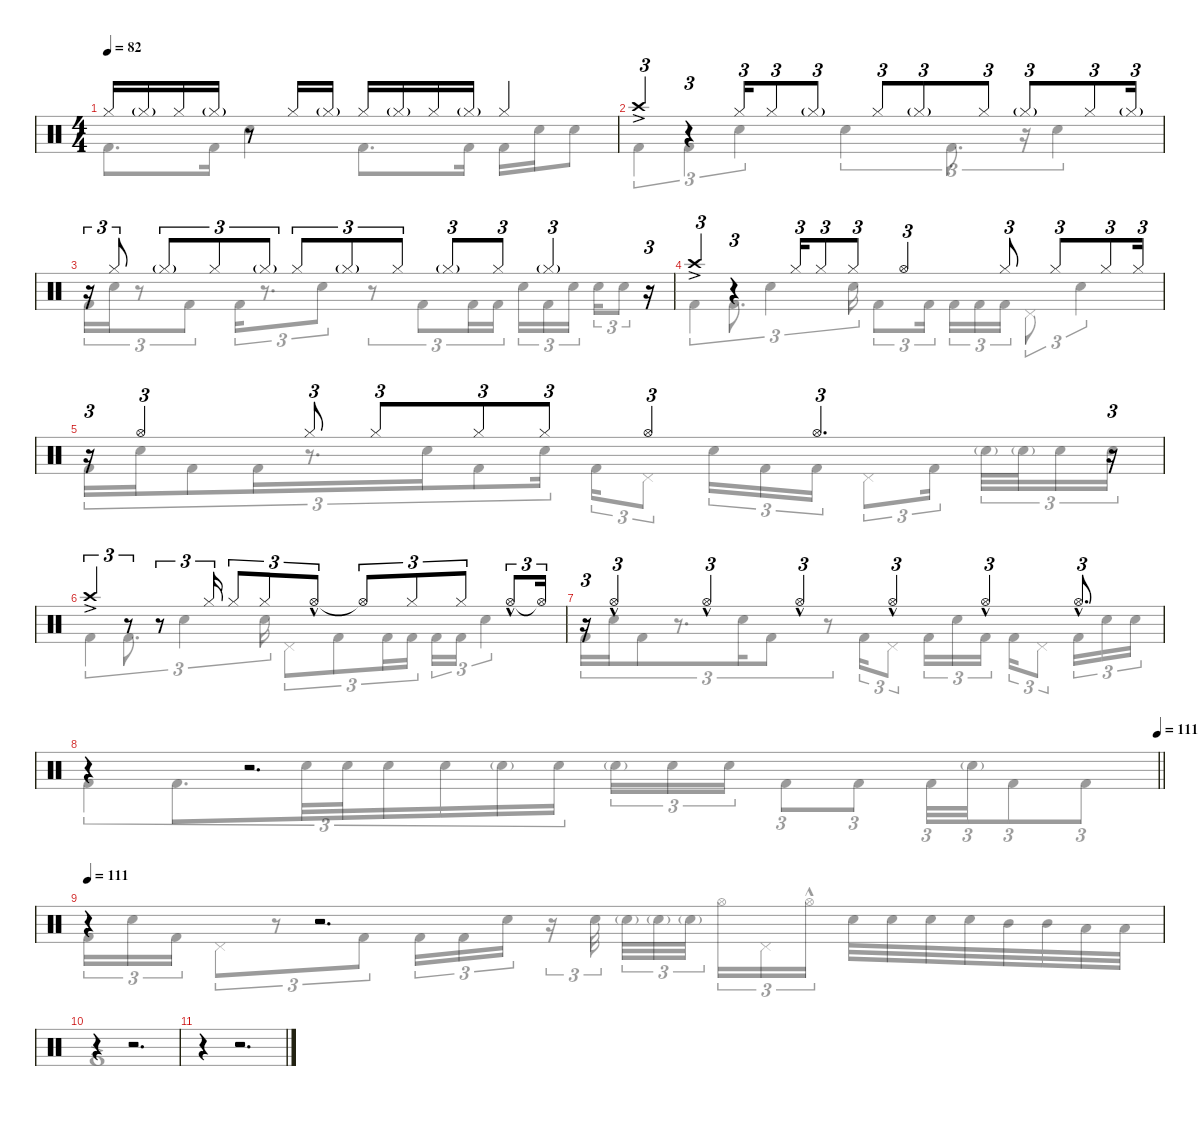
\defaultSystemsLayout 4
\hideDynamics
\bracketExtendMode nobrackets
\singleTrackTrackNamePolicy hidden
\multiTrackTrackNamePolicy hidden
\firstSystemTrackNameMode fullname
\firstSystemTrackNameOrientation horizontal
\otherSystemsTrackNameOrientation horizontal
\track ("Drums" "drm.") {instrument percussion}
\staff {score}
\articulation defaults
\voice
\ts (4 4)
\tempo 82
\clef neutral
\ks c "Hi-Hat (closed)".16{dy mf beam Up} "Hi-Hat (closed)"{g}.16{dy f beam Up} "Hi-Hat (closed)".16{dy mf beam Up} "Hi-Hat (closed)"{g}.16{dy f beam Up}
r.8{beam Up} "Hi-Hat (closed)".16{dy mf beam Up} "Hi-Hat (closed)"{g}.16{dy f beam Up} "Hi-Hat (closed)".16{dy mf beam Up} "Hi-Hat (closed)"{g}.16{dy f beam Up} "Hi-Hat (closed)".16{dy mf beam Up} "Hi-Hat (closed)"{g}.16{dy f beam Up} "Hi-Hat (closed)".4{dy mf beam Up} |
"Crash high (hit)"{ac}.4{tu (3 2) beam Up} r.4{tu (3 2) beam Up} "Hi-Hat (closed)".16{tu (3 2) dy f beam Up} "Hi-Hat (closed)".8{tu (3 2) beam Up} "Hi-Hat (closed)"{g}.8{tu (3 2) dy ff beam Up} "Hi-Hat (closed)".8{tu (3 2) dy f beam Up} "Hi-Hat (closed)"{g}.8{tu (3 2) dy ff beam Up} "Hi-Hat (closed)".8{tu (3 2) dy f beam Up} "Hi-Hat (closed)"{g}.8{tu (3 2) dy ff beam Up} "Hi-Hat (closed)".8{tu (3 2) dy f beam Up} "Hi-Hat (closed)"{g}.16{tu (3 2) dy ff beam Up} |
r.16{tu (3 2) beam Up} "Hi-Hat (closed)".8{tu (3 2) dy f beam Up} "Hi-Hat (closed)"{g}.8{tu (3 2) dy ff beam Up} "Hi-Hat (closed)".8{tu (3 2) dy f beam Up} "Hi-Hat (closed)"{g}.8{tu (3 2) dy ff beam Up} "Hi-Hat (closed)".8{tu (3 2) dy f beam Up} "Hi-Hat (closed)"{g}.8{tu (3 2) dy ff beam Up} "Hi-Hat (closed)".8{tu (3 2) dy f beam Up} "Hi-Hat (closed)"{g}.8{tu (3 2) dy ff beam Up} "Hi-Hat (closed)".8{tu (3 2) dy f beam Up} "Hi-Hat (closed)"{g}.4{tu (3 2) dy ff beam Up} r.16{tu (3 2) beam Up} |
"Crash high (hit)"{ac}.4{tu (3 2) dy mf beam Up} r.4{tu (3 2) beam Up} "Hi-Hat (closed)".16{tu (3 2) dy f beam Up} "Hi-Hat (closed)".8{tu (3 2) beam Up} "Hi-Hat (closed)".8{tu (3 2) beam Up} "Hi-Hat (open)".4{tu (3 2) beam Up} "Hi-Hat (closed)".8{tu (3 2) beam Up} "Hi-Hat (closed)".8{tu (3 2) beam Up} "Hi-Hat (closed)".8{tu (3 2) beam Up} "Hi-Hat (closed)".16{tu (3 2) beam Up} |
r.16{tu (3 2) beam Up} "Hi-Hat (open)".4{tu (3 2) beam Up} "Hi-Hat (closed)".8{tu (3 2) beam Up} "Hi-Hat (closed)".8{tu (3 2) beam Up} "Hi-Hat (closed)".8{tu (3 2) beam Up} "Hi-Hat (closed)".8{tu (3 2) beam Up} "Hi-Hat (open)".4{tu (3 2) beam Up} "Hi-Hat (open)".4{d tu (3 2) beam Up} r.16{tu (3 2) beam Up} |
"Crash high (hit)"{ac}.4{tu (3 2) dy mf beam Up} r.8{tu (3 2) beam Up} r.8{tu (3 2) beam Up} "Hi-Hat (closed)".16{tu (3 2) dy f beam Up} "Hi-Hat (closed)".8{tu (3 2) beam Up} "Hi-Hat (closed)".8{tu (3 2) beam Up} "Hi-Hat (open)"{hac}.8{tu (3 2) dy mp beam Up} "Hi-Hat (open)"{t}.8{tu (3 2) dy f beam Up} "Hi-Hat (closed)".8{tu (3 2) beam Up} "Hi-Hat (closed)".8{tu (3 2) beam Up} "Hi-Hat (open)"{hac}.8{tu (3 2) dy mp beam Up} "Hi-Hat (open)"{t}.16{tu (3 2) dy f beam Up} |
r.16{tu (3 2) beam Up} "Hi-Hat (open)"{hac}.4{tu (3 2) dy mp beam Up} "Hi-Hat (open)"{hac}.4{tu (3 2) beam Up} "Hi-Hat (open)"{hac}.4{tu (3 2) beam Up} "Hi-Hat (open)"{hac}.4{tu (3 2) beam Up} "Hi-Hat (open)"{hac}.4{tu (3 2) beam Up} "Hi-Hat (open)"{hac}.8{d tu (3 2) beam Up} |
\tempo (111 1)
\barLineRight lightlight
r.4{beam Up} r.2{d beam Up} |
\tempo 111
r.4{beam Up} r.2{d beam Up} |
r.4{beam Up} r.2{d beam Up} |
r.4{beam Down} r.2{d beam Down}
\voice
\clef neutral
\ottava regular
\simile none
\ks c "Kick (hit) 2".8{d dy mf beam Down} "Kick (hit) 2".16{beam Down} "Snare (hit) 2".4{beam Down} "Kick (hit) 2".8{d beam Down} "Kick (hit) 2".16{beam Down} "Kick (hit) 2".16{beam Down} "Snare (hit) 2".16{beam Down} "Snare (hit) 2".8{beam Down}
|
"Kick (hit) 2".4{tu (3 2) dy f beam Down} "Kick (hit) 2".4{tu (3 2) beam Down} "Snare (hit) 2".4{tu (3 2) beam Down} "Snare (hit) 2".4{tu (3 2) beam Down} "Kick (hit) 2".8{d tu (3 2) beam Down} r.16{tu (3 2) beam Down} "Snare (hit) 2".4{tu (3 2) beam Down} |
"Kick (hit) 2".16{tu (3 2) beam Down} "Snare (hit) 2".16{tu (3 2) beam Down} r.8{tu (3 2) beam Down} "Kick (hit) 2".8{tu (3 2) beam Down} "Kick (hit) 2".16{tu (3 2) beam Down} r.8{d tu (3 2) beam Down} "Snare (hit) 2".8{tu (3 2) beam Down} r.8{tu (3 2) beam Down} "Kick (hit) 2".8{tu (3 2) beam Down} "Kick (hit) 2".16{tu (3 2) beam Down} "Kick (hit) 2".16{tu (3 2) beam Down} "Snare (hit) 2".16{tu (3 2) beam Down} "Kick (hit) 2".16{tu (3 2) beam Down} "Snare (hit) 2".16{tu (3 2) beam Down} "Snare (hit) 2".16{tu (3 2) beam Down} "Snare (hit) 2".8{tu (3 2) beam Down} |
"Kick (hit) 2".4{tu (3 2) beam Down} "Kick (hit) 2".8{d tu (3 2) beam Down} "Snare (hit) 2".4{tu (3 2) beam Down} "Snare (hit) 2".16{tu (3 2) beam Down} "Kick (hit) 2".8{tu (3 2) beam Down} "Kick (hit) 2".16{tu (3 2) beam Down} "Kick (hit) 2".16{tu (3 2) beam Down} "Kick (hit) 2".16{tu (3 2) beam Down} "Kick (hit) 2".16{tu (3 2) beam Down} "Pedal Hi-Hat (hit)".8{tu (3 2) beam Down} "Snare (hit) 2".4{tu (3 2) beam Down} |
"Kick (hit) 2".16{tu (3 2) beam Down} "Snare (hit) 2".16{tu (3 2) beam Down} "Kick (hit) 2".8{tu (3 2) beam Down} "Kick (hit) 2".16{tu (3 2) beam Down} r.8{d tu (3 2) beam Down} "Snare (hit) 2".16{tu (3 2) beam Down} "Kick (hit) 2".8{tu (3 2) beam Down} "Snare (hit) 2".16{tu (3 2) beam Down} "Kick (hit) 2".16{tu (3 2) beam Down} "Pedal Hi-Hat (hit)".8{tu (3 2) beam Down} "Snare (hit) 2".16{tu (3 2) beam Down} "Kick (hit) 2".16{tu (3 2) beam Down} "Kick (hit) 2".16{tu (3 2) beam Down} "Pedal Hi-Hat (hit)".8{tu (3 2) beam Down} "Kick (hit) 2".16{tu (3 2) dy mf beam Down} "Snare (hit) 2"{g}.32{tu (3 2) beam Down} "Snare (hit) 2"{g}.32{tu (3 2) beam Down} "Snare (hit) 2".16{tu (3 2) dy f beam Down} "Snare (hit) 2".16{tu (3 2) beam Down} |
"Kick (hit) 2".4{tu (3 2) beam Down} "Kick (hit) 2".8{d tu (3 2) beam Down} "Snare (hit) 2".4{tu (3 2) beam Down} "Snare (hit) 2".16{tu (3 2) beam Down} "Pedal Hi-Hat (hit)".8{tu (3 2) beam Down} "Kick (hit) 2".8{tu (3 2) beam Down} "Kick (hit) 2".16{tu (3 2) beam Down} "Kick (hit) 2".16{tu (3 2) beam Down} "Kick (hit) 2".16{tu (3 2) beam Down} "Kick (hit) 2".16{tu (3 2) beam Down} "Snare (hit) 2".4{tu (3 2) beam Down} |
"Kick (hit) 2".16{tu (3 2) beam Down} "Snare (hit) 2".16{tu (3 2) beam Down} "Kick (hit) 2".8{tu (3 2) beam Down} r.8{d tu (3 2) beam Down} "Snare (hit) 2".16{tu (3 2) beam Down} "Kick (hit) 2".8{tu (3 2) beam Down} r.8{tu (3 2) beam Down} "Kick (hit) 2".16{tu (3 2) beam Down} "Pedal Hi-Hat (hit)".8{tu (3 2) beam Down} "Kick (hit) 2".16{tu (3 2) beam Down} "Snare (hit) 2".16{tu (3 2) beam Down} "Kick (hit) 2".16{tu (3 2) beam Down} "Kick (hit) 2".16{tu (3 2) beam Down} "Pedal Hi-Hat (hit)".8{tu (3 2) beam Down} "Kick (hit) 2".16{tu (3 2) beam Down} "Snare (hit) 2".16{tu (3 2) beam Down} "Snare (hit) 2".16{tu (3 2) beam Down} |
\barLineRight lightlight "Kick (hit) 2".4{tu (3 2) beam Down} "Kick (hit) 2".8{d tu (3 2) beam Down} "Snare (hit) 2".32{tu (3 2) dy mp beam Down} "Snare (hit) 2".32{tu (3 2) beam Down} "Snare (hit) 2".16{tu (3 2) dy f beam Down} "Snare (hit) 2".16{tu (3 2) beam Down} "Snare (hit) 2"{g}.16{tu (3 2) dy mf beam Down} "Snare (hit) 2".16{tu (3 2) dy f beam Down} "Snare (hit) 2"{g}.16{tu (3 2) dy mf beam Down} "Snare (hit) 2".16{tu (3 2) dy f beam Down} "Snare (hit) 2".16{tu (3 2) beam Down} "Kick (hit) 2".8{tu (3 2) beam Down} "Kick (hit) 2".8{tu (3 2) beam Down} "Kick (hit) 2".32{tu (3 2) beam Down} "Snare (hit) 2"{g}.32{tu (3 2) dy mf beam Down} "Kick (hit) 2".8{tu (3 2) dy f beam Down} "Kick (hit) 2".8{tu (3 2) beam Down}
|
"Kick (hit) 2".16{tu (3 2) beam Down} "Snare (hit) 2".16{tu (3 2) beam Down} "Kick (hit) 2".16{tu (3 2) beam Down} "Pedal Hi-Hat (hit)".8{tu (3 2) beam Down} r.8{tu (3 2) beam Down} "Kick (hit) 2".8{tu (3 2) beam Down} "Kick (hit) 2".16{tu (3 2) beam Down} "Kick (hit) 2".16{tu (3 2) beam Down} "Snare (hit) 2".16{tu (3 2) beam Down} r.16{tu (3 2) beam Down} "Snare (hit) 2".32{tu (3 2) beam Down} "Snare (hit) 2"{g}.32{tu (3 2) beam Down} "Snare (hit) 2"{g}.32{tu (3 2) beam Down} "Snare (hit) 2"{g}.32{tu (3 2) beam Down} "Hi-Hat (open)".16{tu (3 2) beam Down} "Pedal Hi-Hat (hit)".16{tu (3 2) beam Down} "Hi-Hat (open)"{hac}.16{tu (3 2) dy mp beam Down} "Snare (hit) 2".32{dy mf beam Down} "Snare (hit) 2".32{beam Down} "Snare (hit) 2".32{beam Down} "Snare (hit) 2".32{dy f beam Down} "Mid Tom (hit)".32{beam Down} "Mid Tom (hit)".32{beam Down} "Low Tom (hit)".32{beam Down} "Low Tom (hit)".32{beam Down} |
"Kick (hit) 2"{ac}.1{dy mf beam Down} |
